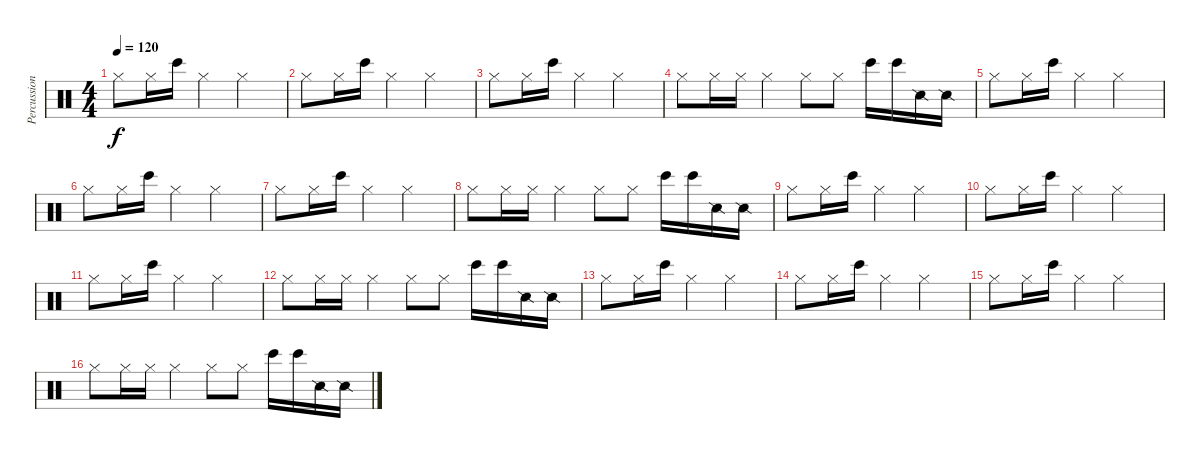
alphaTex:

\track ("Percussioni" "Percussion") {instrument percussion}
\staff {score}
\articulation defaults
\ts (4 4)
\tempo 120
\clef neutral
\ks c "Hi-Hat (closed)".8{dy f} "Hi-Hat (closed)".16 "Bongo High (hit)".16 "Hi-Hat (closed)".4 "Hi-Hat (closed)".2
|
"Hi-Hat (closed)".8 "Hi-Hat (closed)".16 "Bongo High (hit)".16 "Hi-Hat (closed)".4 "Hi-Hat (closed)".2 |
"Hi-Hat (closed)".8 "Hi-Hat (closed)".16 "Bongo High (hit)".16 "Hi-Hat (closed)".4 "Hi-Hat (closed)".2 |
"Hi-Hat (closed)".8 "Hi-Hat (closed)".16 "Hi-Hat (closed)".16 "Hi-Hat (closed)".4 "Hi-Hat (closed)".8 "Hi-Hat (closed)".8 "Bongo High (hit)".16 "Bongo High (hit)".16 "Snare (side stick) 2".16 "Snare (side stick) 2".16 |
"Hi-Hat (closed)".8 "Hi-Hat (closed)".16 "Bongo High (hit)".16 "Hi-Hat (closed)".4 "Hi-Hat (closed)".2 |
"Hi-Hat (closed)".8 "Hi-Hat (closed)".16 "Bongo High (hit)".16 "Hi-Hat (closed)".4 "Hi-Hat (closed)".2 |
"Hi-Hat (closed)".8 "Hi-Hat (closed)".16 "Bongo High (hit)".16 "Hi-Hat (closed)".4 "Hi-Hat (closed)".2 |
"Hi-Hat (closed)".8 "Hi-Hat (closed)".16 "Hi-Hat (closed)".16 "Hi-Hat (closed)".4 "Hi-Hat (closed)".8 "Hi-Hat (closed)".8 "Bongo High (hit)".16 "Bongo High (hit)".16 "Snare (side stick) 2".16 "Snare (side stick) 2".16 |
"Hi-Hat (closed)".8 "Hi-Hat (closed)".16 "Bongo High (hit)".16 "Hi-Hat (closed)".4 "Hi-Hat (closed)".2 |
"Hi-Hat (closed)".8 "Hi-Hat (closed)".16 "Bongo High (hit)".16 "Hi-Hat (closed)".4 "Hi-Hat (closed)".2 |
"Hi-Hat (closed)".8 "Hi-Hat (closed)".16 "Bongo High (hit)".16 "Hi-Hat (closed)".4 "Hi-Hat (closed)".2 |
"Hi-Hat (closed)".8 "Hi-Hat (closed)".16 "Hi-Hat (closed)".16 "Hi-Hat (closed)".4 "Hi-Hat (closed)".8 "Hi-Hat (closed)".8 "Bongo High (hit)".16 "Bongo High (hit)".16 "Snare (side stick) 2".16 "Snare (side stick) 2".16 |
"Hi-Hat (closed)".8 "Hi-Hat (closed)".16 "Bongo High (hit)".16 "Hi-Hat (closed)".4 "Hi-Hat (closed)".2 |
"Hi-Hat (closed)".8 "Hi-Hat (closed)".16 "Bongo High (hit)".16 "Hi-Hat (closed)".4 "Hi-Hat (closed)".2 |
"Hi-Hat (closed)".8 "Hi-Hat (closed)".16 "Bongo High (hit)".16 "Hi-Hat (closed)".4 "Hi-Hat (closed)".2 |
"Hi-Hat (closed)".8 "Hi-Hat (closed)".16 "Hi-Hat (closed)".16 "Hi-Hat (closed)".4 "Hi-Hat (closed)".8 "Hi-Hat (closed)".8 "Bongo High (hit)".16 "Bongo High (hit)".16 "Snare (side stick) 2".16 "Snare (side stick) 2".16
